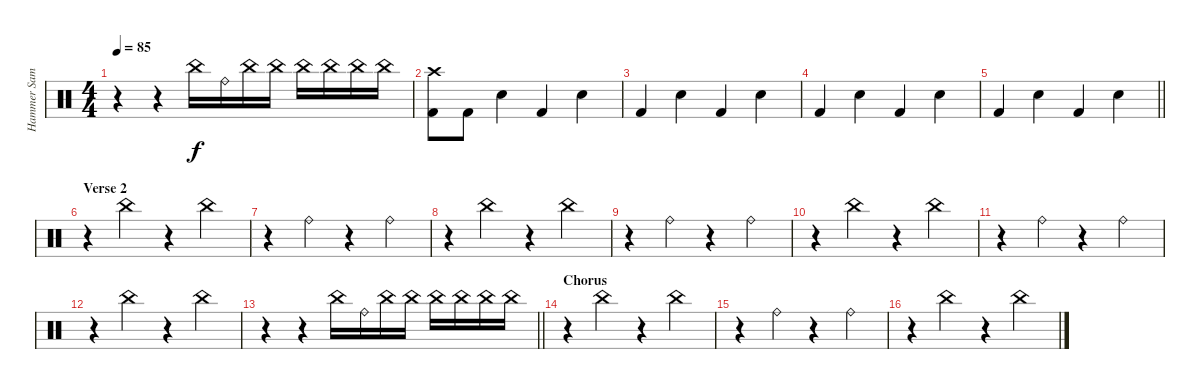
\track ("Hammer Samples" "Hammer Sam") {instrument percussion}
\staff {score}
\articulation defaults
\ts (4 4)
\tempo 85
\clef neutral
\ks c
r.4{dy f} r.4 "China (hit)".16 "Ride (bell)".16 "China (hit)".16 "China (hit)".16 "China (hit)".16 "China (hit)".16 "China (hit)".16 "China (hit)".16 |
("Crash high (hit)" "Kick (hit) 2").8 "Kick (hit) 2".8 "Electric Snare (hit)".4 "Kick (hit) 2".4 "Electric Snare (hit)".4 |
"Kick (hit) 2".4 "Electric Snare (hit)".4 "Kick (hit) 2".4 "Electric Snare (hit)".4 |
"Kick (hit) 2".4 "Electric Snare (hit)".4 "Kick (hit) 2".4 "Electric Snare (hit)".4 |
\barLineRight lightlight "Kick (hit) 2".4 "Electric Snare (hit)".4 "Kick (hit) 2".4 "Electric Snare (hit)".4
|
\section ("" "Verse 2")
r.4 "China (hit)".4 r.4 "China (hit)".4 |
r.4 "Ride (bell)".4 r.4 "Ride (bell)".4 |
r.4 "China (hit)".4 r.4 "China (hit)".4 |
r.4 "Ride (bell)".4 r.4 "Ride (bell)".4 |
r.4 "China (hit)".4 r.4 "China (hit)".4 |
r.4 "Ride (bell)".4 r.4 "Ride (bell)".4 |
r.4 "China (hit)".4 r.4 "China (hit)".4 |
\barLineRight lightlight
r.4 r.4 "China (hit)".16 "Ride (bell)".16 "China (hit)".16 "China (hit)".16 "China (hit)".16 "China (hit)".16 "China (hit)".16 "China (hit)".16 |
\section ("" "Chorus")
r.4 "China (hit)".4 r.4 "China (hit)".4 |
r.4 "Ride (bell)".4 r.4 "Ride (bell)".4 |
r.4 "China (hit)".4 r.4 "China (hit)".4
